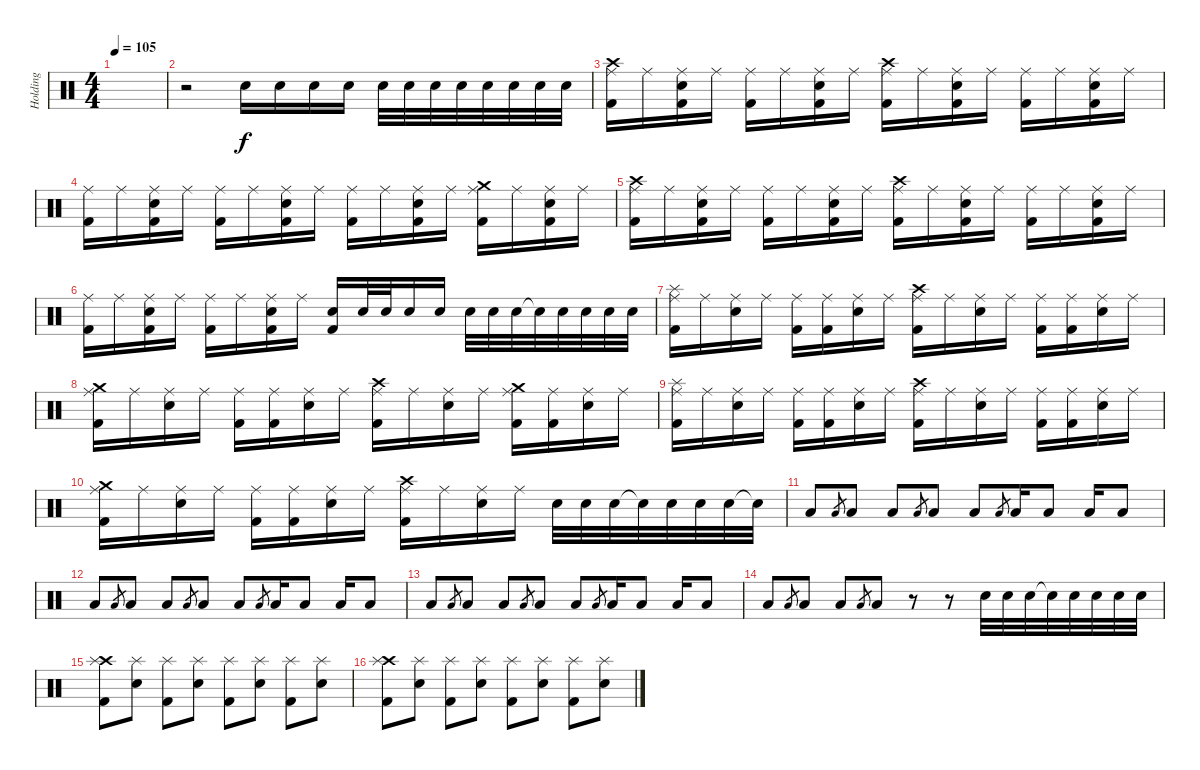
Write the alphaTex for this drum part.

\track ("Holding" "Holding") {instrument percussion}
\staff {score}
\articulation defaults
\ts (4 4)
\tempo 105
\clef neutral
\ks c
|
r.2 "Electric Snare (hit)".16 "Electric Snare (hit)".16 "Electric Snare (hit)".16 "Electric Snare (hit)".16 "Electric Snare (hit)".32 "Electric Snare (hit)".32 "Electric Snare (hit)".32 "Electric Snare (hit)".32 "Electric Snare (hit)".32 "Electric Snare (hit)".32 "Electric Snare (hit)".32 "Electric Snare (hit)".32 |
("Crash high (hit)" "Ride (middle)" "Kick (hit) 2").16 "Ride (middle)".16 ("Ride (middle)" "Electric Snare (hit)" "Kick (hit) 2").16 "Ride (middle)".16 ("Ride (middle)" "Kick (hit) 2").16 "Ride (middle)".16 ("Ride (middle)" "Electric Snare (hit)" "Kick (hit) 2").16 "Ride (middle)".16 ("Crash high (hit)" "Ride (middle)" "Kick (hit) 2").16 "Ride (middle)".16 ("Ride (middle)" "Electric Snare (hit)" "Kick (hit) 2").16 "Ride (middle)".16 ("Ride (middle)" "Kick (hit) 2").16 "Ride (middle)".16 ("Ride (middle)" "Electric Snare (hit)" "Kick (hit) 2").16 "Ride (middle)".16 |
("Ride (middle)" "Kick (hit) 2").16 "Ride (middle)".16 ("Ride (middle)" "Electric Snare (hit)" "Kick (hit) 2").16 "Ride (middle)".16 ("Ride (middle)" "Kick (hit) 2").16 "Ride (middle)".16 ("Ride (middle)" "Electric Snare (hit)" "Kick (hit) 2").16 "Ride (middle)".16 ("Ride (middle)" "Kick (hit) 2").16 "Ride (middle)".16 ("Ride (middle)" "Electric Snare (hit)" "Kick (hit) 2").16 "Ride (middle)".16 ("Crash medium (hit)" "Ride (middle)" "Kick (hit) 2").16 "Ride (middle)".16 ("Ride (middle)" "Electric Snare (hit)" "Kick (hit) 2").16 "Ride (middle)".16 |
("Crash high (hit)" "Ride (middle)" "Kick (hit) 2").16 "Ride (middle)".16 ("Ride (middle)" "Electric Snare (hit)" "Kick (hit) 2").16 "Ride (middle)".16 ("Ride (middle)" "Kick (hit) 2").16 "Ride (middle)".16 ("Ride (middle)" "Electric Snare (hit)" "Kick (hit) 2").16 "Ride (middle)".16 ("Crash high (hit)" "Ride (middle)" "Kick (hit) 2").16 "Ride (middle)".16 ("Ride (middle)" "Electric Snare (hit)" "Kick (hit) 2").16 "Ride (middle)".16 ("Ride (middle)" "Kick (hit) 2").16 "Ride (middle)".16 ("Ride (middle)" "Electric Snare (hit)" "Kick (hit) 2").16 "Ride (middle)".16 |
("Ride (middle)" "Kick (hit) 2").16 "Ride (middle)".16 ("Ride (middle)" "Electric Snare (hit)" "Kick (hit) 2").16 "Ride (middle)".16 ("Ride (middle)" "Kick (hit) 2").16 "Ride (middle)".16 ("Ride (middle)" "Electric Snare (hit)" "Kick (hit) 2").16 "Ride (middle)".16 ("Electric Snare (hit)" "Kick (hit) 2").16 "Electric Snare (hit)".32 "Electric Snare (hit)".32 "Electric Snare (hit)".16 "Electric Snare (hit)".16 "Electric Snare (hit)".32 "Electric Snare (hit)".32 "Electric Snare (hit)".32 "Electric Snare (hit)"{t}.32 "Electric Snare (hit)".32 "Electric Snare (hit)".32 "Electric Snare (hit)".32 "Electric Snare (hit)".32 |
("Splash (hit)" "Ride (middle)" "Kick (hit) 2").16 "Ride (middle)".16 ("Ride (middle)" "Electric Snare (hit)").16 "Ride (middle)".16 ("Ride (middle)" "Kick (hit) 2").16 ("Ride (middle)" "Kick (hit) 2").16 ("Ride (middle)" "Electric Snare (hit)").16 "Ride (middle)".16 ("Crash high (hit)" "Ride (middle)" "Kick (hit) 2").16 "Ride (middle)".16 ("Ride (middle)" "Electric Snare (hit)").16 "Ride (middle)".16 ("Ride (middle)" "Kick (hit) 2").16 ("Ride (middle)" "Kick (hit) 2").16 ("Ride (middle)" "Electric Snare (hit)").16 "Ride (middle)".16 |
("Crash medium (hit)" "Ride (middle)" "Kick (hit) 2").16 "Ride (middle)".16 ("Ride (middle)" "Electric Snare (hit)").16 "Ride (middle)".16 ("Ride (middle)" "Kick (hit) 2").16 ("Ride (middle)" "Kick (hit) 2").16 ("Ride (middle)" "Electric Snare (hit)").16 "Ride (middle)".16 ("Crash high (hit)" "Ride (middle)" "Kick (hit) 2").16 "Ride (middle)".16 ("Ride (middle)" "Electric Snare (hit)").16 "Ride (middle)".16 ("Crash medium (hit)" "Ride (middle)" "Kick (hit) 2").16 ("Ride (middle)" "Kick (hit) 2").16 ("Ride (middle)" "Electric Snare (hit)").16 "Ride (middle)".16 |
("Splash (hit)" "Ride (middle)" "Kick (hit) 2").16 "Ride (middle)".16 ("Ride (middle)" "Electric Snare (hit)").16 "Ride (middle)".16 ("Ride (middle)" "Kick (hit) 2").16 ("Ride (middle)" "Kick (hit) 2").16 ("Ride (middle)" "Electric Snare (hit)").16 "Ride (middle)".16 ("Crash high (hit)" "Ride (middle)" "Kick (hit) 2").16 "Ride (middle)".16 ("Ride (middle)" "Electric Snare (hit)").16 "Ride (middle)".16 ("Ride (middle)" "Kick (hit) 2").16 ("Ride (middle)" "Kick (hit) 2").16 ("Ride (middle)" "Electric Snare (hit)").16 "Ride (middle)".16 |
("Crash medium (hit)" "Ride (middle)" "Kick (hit) 2").16 "Ride (middle)".16 ("Ride (middle)" "Electric Snare (hit)").16 "Ride (middle)".16 ("Ride (middle)" "Kick (hit) 2").16 ("Ride (middle)" "Kick (hit) 2").16 ("Ride (middle)" "Electric Snare (hit)").16 "Ride (middle)".16 ("Crash high (hit)" "Ride (middle)" "Kick (hit) 2").16 "Ride (middle)".16 ("Ride (middle)" "Electric Snare (hit)").16 "Ride (middle)".16 "Electric Snare (hit)".32 "Electric Snare (hit)".32 "Electric Snare (hit)".32 "Electric Snare (hit)"{t}.32 "Electric Snare (hit)".32 "Electric Snare (hit)".32 "Electric Snare (hit)".32 "Electric Snare (hit)"{t}.32 |
"Low Floor Tom (hit)".8 "Low Floor Tom (hit)".8{gr} "Low Floor Tom (hit)".8 "Low Floor Tom (hit)".8 "Low Floor Tom (hit)".8{gr} "Low Floor Tom (hit)".8 "Low Floor Tom (hit)".8 "Low Floor Tom (hit)".8{gr} "Low Floor Tom (hit)".16 "Low Floor Tom (hit)".8 "Low Floor Tom (hit)".16 "Low Floor Tom (hit)".8 |
"Low Floor Tom (hit)".8 "Low Floor Tom (hit)".8{gr} "Low Floor Tom (hit)".8 "Low Floor Tom (hit)".8 "Low Floor Tom (hit)".8{gr} "Low Floor Tom (hit)".8 "Low Floor Tom (hit)".8 "Low Floor Tom (hit)".8{gr} "Low Floor Tom (hit)".16 "Low Floor Tom (hit)".8 "Low Floor Tom (hit)".16 "Low Floor Tom (hit)".8 |
"Low Floor Tom (hit)".8 "Low Floor Tom (hit)".8{gr} "Low Floor Tom (hit)".8 "Low Floor Tom (hit)".8 "Low Floor Tom (hit)".8{gr} "Low Floor Tom (hit)".8 "Low Floor Tom (hit)".8 "Low Floor Tom (hit)".8{gr} "Low Floor Tom (hit)".16 "Low Floor Tom (hit)".8 "Low Floor Tom (hit)".16 "Low Floor Tom (hit)".8 |
"Low Floor Tom (hit)".8 "Low Floor Tom (hit)".8{gr} "Low Floor Tom (hit)".8 "Low Floor Tom (hit)".8 "Low Floor Tom (hit)".8{gr} "Low Floor Tom (hit)".8 r.8 r.8 "Electric Snare (hit)".32 "Electric Snare (hit)".32 "Electric Snare (hit)".32 "Electric Snare (hit)"{t}.32 "Electric Snare (hit)".32 "Electric Snare (hit)".32 "Electric Snare (hit)".32 "Electric Snare (hit)".32 |
("Crash high (hit)" "Splash (hit)" "Kick (hit) 2").8 ("Splash (hit)" "Electric Snare (hit)").8 ("Splash (hit)" "Kick (hit) 2").8 ("Splash (hit)" "Electric Snare (hit)").8 ("Splash (hit)" "Kick (hit) 2").8 ("Splash (hit)" "Electric Snare (hit)").8 ("Splash (hit)" "Kick (hit) 2").8 ("Splash (hit)" "Electric Snare (hit)").8 |
("Crash high (hit)" "Splash (hit)" "Kick (hit) 2").8 ("Splash (hit)" "Electric Snare (hit)").8 ("Splash (hit)" "Kick (hit) 2").8 ("Splash (hit)" "Electric Snare (hit)").8 ("Splash (hit)" "Kick (hit) 2").8 ("Splash (hit)" "Electric Snare (hit)").8 ("Splash (hit)" "Kick (hit) 2").8 ("Splash (hit)" "Electric Snare (hit)").8
